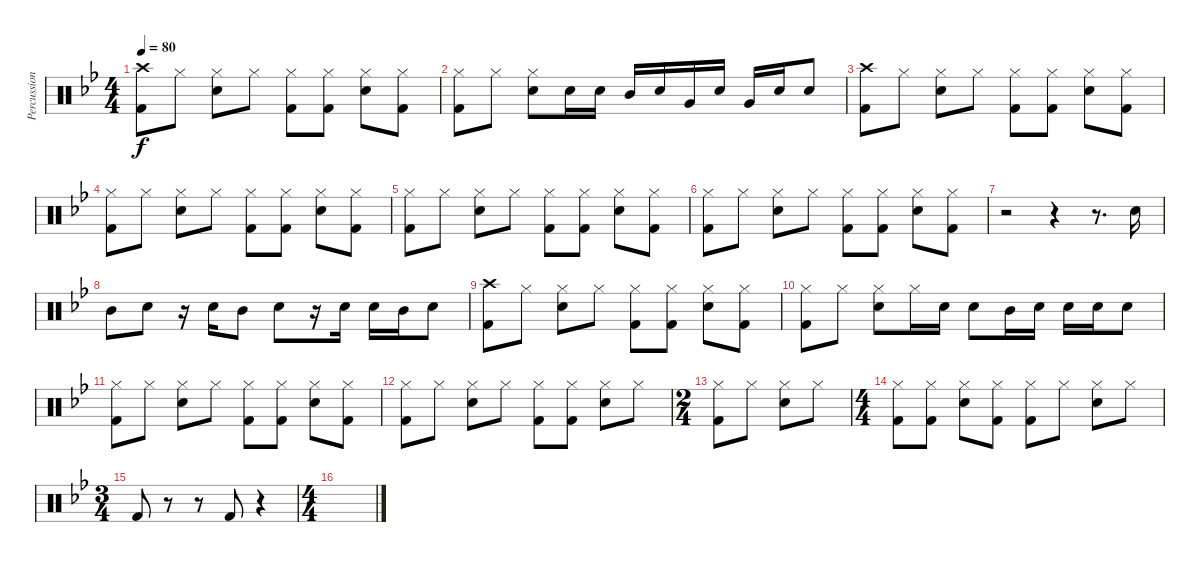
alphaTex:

\track ("Percussion" "Percussion") {instrument percussion}
\staff {score}
\articulation defaults
\ts (4 4)
\tempo 80
\clef neutral
\ks bb
("Crash high (hit)" "Kick (hit) 2").8{dy f} "Hi-Hat (closed)".8 ("Hi-Hat (closed)" "Snare (hit) 2").8 "Hi-Hat (closed)".8 ("Hi-Hat (closed)" "Kick (hit) 2").8 ("Hi-Hat (closed)" "Kick (hit) 2").8 ("Hi-Hat (closed)" "Snare (hit) 2").8 ("Hi-Hat (closed)" "Kick (hit) 2").8 |
("Hi-Hat (closed)" "Kick (hit) 2").8 "Hi-Hat (closed)".8 ("Hi-Hat (closed)" "Snare (hit) 2").8 "Snare (hit) 2".16 "Snare (hit) 2".16 "Mid Tom (hit)".16 "Snare (hit) 2".16 "Very Low Tom (hit)".16 "Snare (hit) 2".16 "Very Low Tom (hit)".16 "Snare (hit) 2".16 "Snare (hit) 2".8 |
("Crash high (hit)" "Kick (hit) 2").8 "Hi-Hat (closed)".8 ("Hi-Hat (closed)" "Snare (hit) 2").8 "Hi-Hat (closed)".8 ("Hi-Hat (closed)" "Kick (hit) 2").8 ("Hi-Hat (closed)" "Kick (hit) 2").8 ("Hi-Hat (closed)" "Snare (hit) 2").8 ("Hi-Hat (closed)" "Kick (hit) 2").8 |
("Hi-Hat (closed)" "Kick (hit) 2").8 "Hi-Hat (closed)".8 ("Hi-Hat (closed)" "Snare (hit) 2").8 "Hi-Hat (closed)".8 ("Hi-Hat (closed)" "Kick (hit) 2").8 ("Hi-Hat (closed)" "Kick (hit) 2").8 ("Hi-Hat (closed)" "Snare (hit) 2").8 ("Hi-Hat (closed)" "Kick (hit) 2").8 |
("Hi-Hat (closed)" "Kick (hit) 2").8 "Hi-Hat (closed)".8 ("Hi-Hat (closed)" "Snare (hit) 2").8 "Hi-Hat (closed)".8 ("Hi-Hat (closed)" "Kick (hit) 2").8 ("Hi-Hat (closed)" "Kick (hit) 2").8 ("Hi-Hat (closed)" "Snare (hit) 2").8 ("Hi-Hat (closed)" "Kick (hit) 2").8 |
("Hi-Hat (closed)" "Kick (hit) 2").8 "Hi-Hat (closed)".8 ("Hi-Hat (closed)" "Snare (hit) 2").8 "Hi-Hat (closed)".8 ("Hi-Hat (closed)" "Kick (hit) 2").8 ("Hi-Hat (closed)" "Kick (hit) 2").8 ("Hi-Hat (closed)" "Snare (hit) 2").8 ("Hi-Hat (closed)" "Kick (hit) 2").8 |
r.2 r.4 r.8{d} "Snare (hit) 2".16 |
"Mid Tom (hit)".8 "Snare (hit) 2".8 r.16 "Snare (hit) 2".16 "Mid Tom (hit)".8 "Snare (hit) 2".8 r.16 "Snare (hit) 2".16 "Snare (hit) 2".16 "Mid Tom (hit)".16 "Snare (hit) 2".8 |
("Crash high (hit)" "Kick (hit) 2").8 "Hi-Hat (closed)".8 ("Hi-Hat (closed)" "Snare (hit) 2").8 "Hi-Hat (closed)".8 ("Hi-Hat (closed)" "Kick (hit) 2").8 ("Hi-Hat (closed)" "Kick (hit) 2").8 ("Hi-Hat (closed)" "Snare (hit) 2").8 ("Hi-Hat (closed)" "Kick (hit) 2").8 |
("Hi-Hat (closed)" "Kick (hit) 2").8 "Hi-Hat (closed)".8 ("Hi-Hat (closed)" "Snare (hit) 2").8 "Hi-Hat (closed)".16 "Snare (hit) 2".16 "Snare (hit) 2".8 "Mid Tom (hit)".16 "Snare (hit) 2".16 "Snare (hit) 2".16 "Snare (hit) 2".16 "Snare (hit) 2".8 |
("Hi-Hat (closed)" "Kick (hit) 2").8 "Hi-Hat (closed)".8 ("Hi-Hat (closed)" "Snare (hit) 2").8 "Hi-Hat (closed)".8 ("Hi-Hat (closed)" "Kick (hit) 2").8 ("Hi-Hat (closed)" "Kick (hit) 2").8 ("Hi-Hat (closed)" "Snare (hit) 2").8 ("Hi-Hat (closed)" "Kick (hit) 2").8 |
("Hi-Hat (closed)" "Kick (hit) 2").8 "Hi-Hat (closed)".8 ("Hi-Hat (closed)" "Snare (hit) 2").8 "Hi-Hat (closed)".8 ("Hi-Hat (closed)" "Kick (hit) 2").8 ("Hi-Hat (closed)" "Kick (hit) 2").8 ("Hi-Hat (closed)" "Snare (hit) 2").8 "Hi-Hat (closed)".8 |
\ts (2 4)
("Hi-Hat (closed)" "Kick (hit) 2").8 "Hi-Hat (closed)".8 ("Hi-Hat (closed)" "Snare (hit) 2").8 "Hi-Hat (closed)".8 |
\ts (4 4)
("Hi-Hat (closed)" "Kick (hit) 2").8 ("Hi-Hat (closed)" "Kick (hit) 2").8 ("Hi-Hat (closed)" "Snare (hit) 2").8 ("Hi-Hat (closed)" "Kick (hit) 2").8 ("Hi-Hat (closed)" "Kick (hit) 2").8 "Hi-Hat (closed)".8 ("Hi-Hat (closed)" "Snare (hit) 2").8 "Hi-Hat (closed)".8 |
\ts (3 4)
"Kick (hit) 2".8 r.8 r.8 "Kick (hit) 2".8 r.4 |
\ts (4 4)
